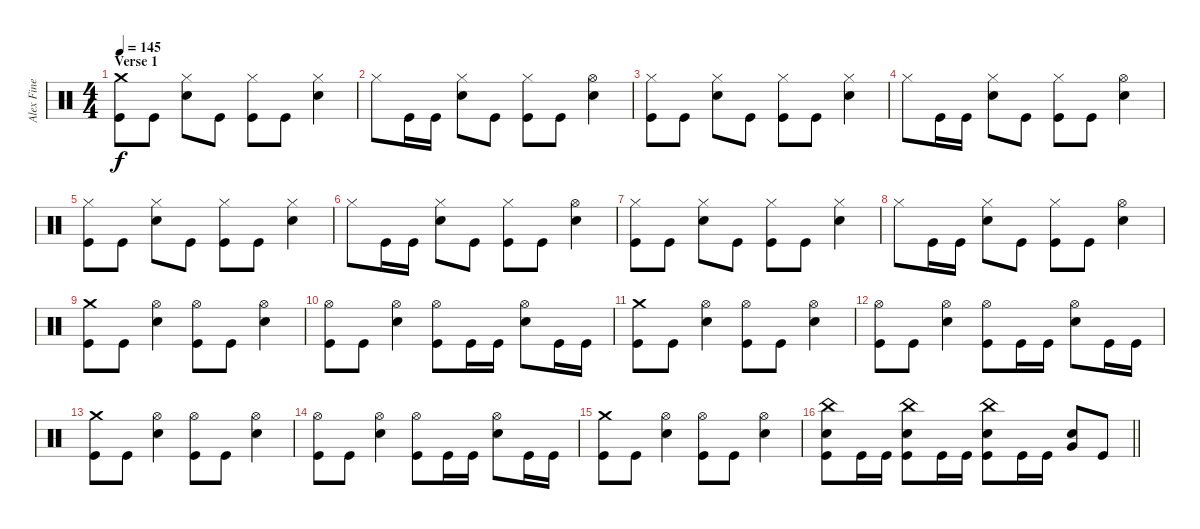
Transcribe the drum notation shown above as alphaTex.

\track ("Alex Fine (Drums)" "Alex Fine ") {instrument percussion}
\staff {score}
\articulation defaults
\ts (4 4)
\section ("" "Verse 1")
\tempo 145
\clef neutral
\ks c
("Crash medium (hit)" "Kick (hit)").8{dy f} "Kick (hit)".8 ("Hi-Hat (closed)" "Snare (hit) 2").8 "Kick (hit)".8 ("Hi-Hat (closed)" "Kick (hit)").8 "Kick (hit)".8 ("Hi-Hat (closed)" "Snare (hit) 2").4 |
"Hi-Hat (closed)".8 "Kick (hit)".16 "Kick (hit)".16 ("Hi-Hat (closed)" "Snare (hit) 2").8 "Kick (hit)".8 ("Hi-Hat (closed)" "Kick (hit)").8 "Kick (hit)".8 ("Hi-Hat (open)" "Snare (hit) 2").4 |
("Hi-Hat (closed)" "Kick (hit)").8 "Kick (hit)".8 ("Hi-Hat (closed)" "Snare (hit) 2").8 "Kick (hit)".8 ("Hi-Hat (closed)" "Kick (hit)").8 "Kick (hit)".8 ("Hi-Hat (closed)" "Snare (hit) 2").4 |
"Hi-Hat (closed)".8 "Kick (hit)".16 "Kick (hit)".16 ("Hi-Hat (closed)" "Snare (hit) 2").8 "Kick (hit)".8 ("Hi-Hat (closed)" "Kick (hit)").8 "Kick (hit)".8 ("Hi-Hat (open)" "Snare (hit) 2").4 |
("Hi-Hat (closed)" "Kick (hit)").8 "Kick (hit)".8 ("Hi-Hat (closed)" "Snare (hit) 2").8 "Kick (hit)".8 ("Hi-Hat (closed)" "Kick (hit)").8 "Kick (hit)".8 ("Hi-Hat (closed)" "Snare (hit) 2").4 |
"Hi-Hat (closed)".8 "Kick (hit)".16 "Kick (hit)".16 ("Hi-Hat (closed)" "Snare (hit) 2").8 "Kick (hit)".8 ("Hi-Hat (closed)" "Kick (hit)").8 "Kick (hit)".8 ("Hi-Hat (open)" "Snare (hit) 2").4 |
("Hi-Hat (closed)" "Kick (hit)").8 "Kick (hit)".8 ("Hi-Hat (closed)" "Snare (hit) 2").8 "Kick (hit)".8 ("Hi-Hat (closed)" "Kick (hit)").8 "Kick (hit)".8 ("Hi-Hat (closed)" "Snare (hit) 2").4 |
"Hi-Hat (closed)".8 "Kick (hit)".16 "Kick (hit)".16 ("Hi-Hat (closed)" "Snare (hit) 2").8 "Kick (hit)".8 ("Hi-Hat (closed)" "Kick (hit)").8 "Kick (hit)".8 ("Hi-Hat (open)" "Snare (hit) 2").4 |
("Crash medium (hit)" "Kick (hit)").8 "Kick (hit)".8 ("Hi-Hat (open)" "Snare (hit) 2").4 ("Hi-Hat (open)" "Kick (hit)").8 "Kick (hit)".8 ("Hi-Hat (open)" "Snare (hit) 2").4 |
("Hi-Hat (open)" "Kick (hit)").8 "Kick (hit)".8 ("Hi-Hat (open)" "Snare (hit) 2").4 ("Hi-Hat (open)" "Kick (hit)").8 "Kick (hit)".16 "Kick (hit)".16 ("Hi-Hat (open)" "Snare (hit) 2").8 "Kick (hit)".16 "Kick (hit)".16 |
("Crash medium (hit)" "Kick (hit)").8 "Kick (hit)".8 ("Hi-Hat (open)" "Snare (hit) 2").4 ("Hi-Hat (open)" "Kick (hit)").8 "Kick (hit)".8 ("Hi-Hat (open)" "Snare (hit) 2").4 |
("Hi-Hat (open)" "Kick (hit)").8 "Kick (hit)".8 ("Hi-Hat (open)" "Snare (hit) 2").4 ("Hi-Hat (open)" "Kick (hit)").8 "Kick (hit)".16 "Kick (hit)".16 ("Hi-Hat (open)" "Snare (hit) 2").8 "Kick (hit)".16 "Kick (hit)".16 |
("Crash medium (hit)" "Kick (hit)").8 "Kick (hit)".8 ("Hi-Hat (open)" "Snare (hit) 2").4 ("Hi-Hat (open)" "Kick (hit)").8 "Kick (hit)".8 ("Hi-Hat (open)" "Snare (hit) 2").4 |
("Hi-Hat (open)" "Kick (hit)").8 "Kick (hit)".8 ("Hi-Hat (open)" "Snare (hit) 2").4 ("Hi-Hat (open)" "Kick (hit)").8 "Kick (hit)".16 "Kick (hit)".16 ("Hi-Hat (open)" "Snare (hit) 2").8 "Kick (hit)".16 "Kick (hit)".16 |
("Crash medium (hit)" "Kick (hit)").8 "Kick (hit)".8 ("Hi-Hat (open)" "Snare (hit) 2").4 ("Hi-Hat (open)" "Kick (hit)").8 "Kick (hit)".8 ("Hi-Hat (open)" "Snare (hit) 2").4 |
\barLineRight lightlight
("China (hit)" "Snare (hit) 2" "Kick (hit)").8 "Kick (hit)".16 "Kick (hit)".16 ("China (hit)" "Snare (hit) 2" "Kick (hit)").8 "Kick (hit)".16 "Kick (hit)".16 ("China (hit)" "Snare (hit) 2" "Kick (hit)").8 "Kick (hit)".16 "Kick (hit)".16 ("Snare (hit) 2" "Very Low Tom (hit)").8 "Kick (hit)".8
